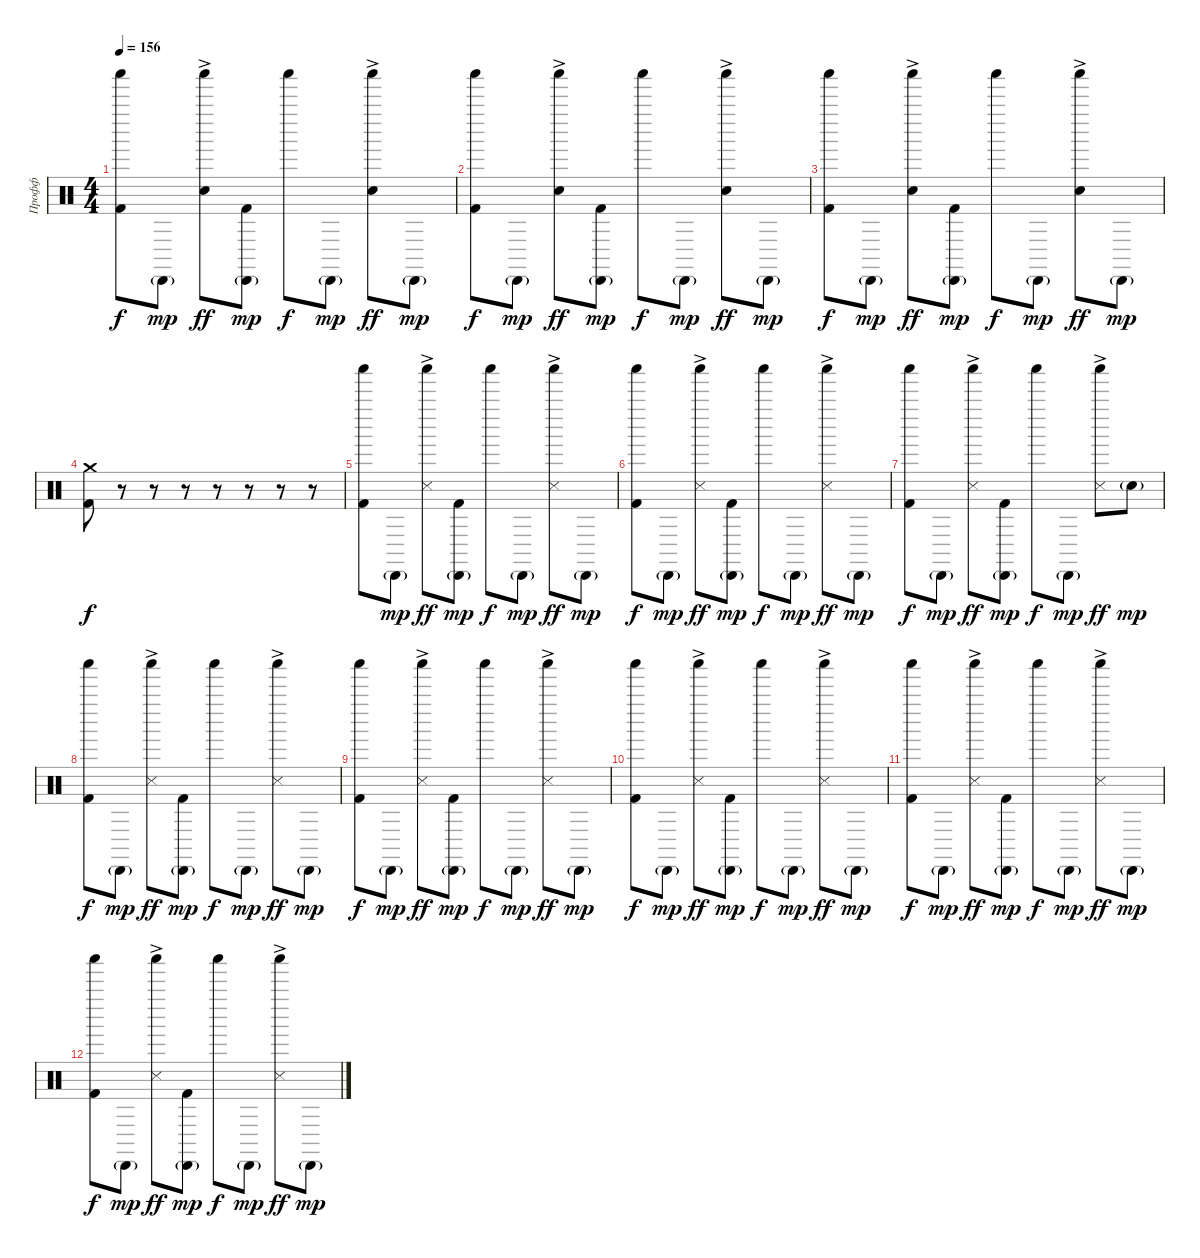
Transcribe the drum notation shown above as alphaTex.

\track ("Профф" "Профф") {instrument percussion}
\staff {score}
\articulation defaults
\ts (4 4)
\tempo 156
\clef neutral
\ks c
("Shaker (hit)" "Kick (hit) 2").8{dy f} "Cabasa (hit)"{g}.8{dy mp} ("Shaker (hit)"{ac} "Electric Snare (hit)").8{dy ff} ("Cabasa (hit)"{g} "Kick (hit) 2").8{dy mp} "Shaker (hit)".8{dy f} "Cabasa (hit)"{g}.8{dy mp} ("Shaker (hit)"{ac} "Electric Snare (hit)").8{dy ff} "Cabasa (hit)"{g}.8{dy mp} |
("Shaker (hit)" "Kick (hit) 2").8{dy f} "Cabasa (hit)"{g}.8{dy mp} ("Shaker (hit)"{ac} "Electric Snare (hit)").8{dy ff} ("Cabasa (hit)"{g} "Kick (hit) 2").8{dy mp} "Shaker (hit)".8{dy f} "Cabasa (hit)"{g}.8{dy mp} ("Shaker (hit)"{ac} "Electric Snare (hit)").8{dy ff} "Cabasa (hit)"{g}.8{dy mp} |
("Shaker (hit)" "Kick (hit) 2").8{dy f} "Cabasa (hit)"{g}.8{dy mp} ("Shaker (hit)"{ac} "Electric Snare (hit)").8{dy ff} ("Cabasa (hit)"{g} "Kick (hit) 2").8{dy mp} "Shaker (hit)".8{dy f} "Cabasa (hit)"{g}.8{dy mp} ("Shaker (hit)"{ac} "Electric Snare (hit)").8{dy ff} "Cabasa (hit)"{g}.8{dy mp} |
("Crash medium (hit)" "Kick (hit) 2").8{dy f} r.8 r.8 r.8 r.8 r.8 r.8 r.8 |
("Shaker (hit)" "Kick (hit) 2").8 "Cabasa (hit)"{g}.8{dy mp} ("Shaker (hit)"{ac} "Snare (side stick) 3").8{dy ff} ("Cabasa (hit)"{g} "Kick (hit) 2").8{dy mp} "Shaker (hit)".8{dy f} "Cabasa (hit)"{g}.8{dy mp} ("Shaker (hit)"{ac} "Snare (side stick) 3").8{dy ff} "Cabasa (hit)"{g}.8{dy mp} |
("Shaker (hit)" "Kick (hit) 2").8{dy f} "Cabasa (hit)"{g}.8{dy mp} ("Shaker (hit)"{ac} "Snare (side stick) 3").8{dy ff} ("Cabasa (hit)"{g} "Kick (hit) 2").8{dy mp} "Shaker (hit)".8{dy f} "Cabasa (hit)"{g}.8{dy mp} ("Shaker (hit)"{ac} "Snare (side stick) 3").8{dy ff} "Cabasa (hit)"{g}.8{dy mp} |
("Shaker (hit)" "Kick (hit) 2").8{dy f} "Cabasa (hit)"{g}.8{dy mp} ("Shaker (hit)"{ac} "Snare (side stick) 3").8{dy ff} ("Cabasa (hit)"{g} "Kick (hit) 2").8{dy mp} "Shaker (hit)".8{dy f} "Cabasa (hit)"{g}.8{dy mp} ("Shaker (hit)"{ac} "Snare (side stick) 3").8{dy ff} "Snare (hit)"{g}.8{dy mp} |
("Shaker (hit)" "Kick (hit) 2").8{dy f} "Cabasa (hit)"{g}.8{dy mp} ("Shaker (hit)"{ac} "Snare (side stick) 3").8{dy ff} ("Cabasa (hit)"{g} "Kick (hit) 2").8{dy mp} "Shaker (hit)".8{dy f} "Cabasa (hit)"{g}.8{dy mp} ("Shaker (hit)"{ac} "Snare (side stick) 3").8{dy ff} "Cabasa (hit)"{g}.8{dy mp} |
("Shaker (hit)" "Kick (hit) 2").8{dy f} "Cabasa (hit)"{g}.8{dy mp} ("Shaker (hit)"{ac} "Snare (side stick) 3").8{dy ff} ("Cabasa (hit)"{g} "Kick (hit) 2").8{dy mp} "Shaker (hit)".8{dy f} "Cabasa (hit)"{g}.8{dy mp} ("Shaker (hit)"{ac} "Snare (side stick) 3").8{dy ff} "Cabasa (hit)"{g}.8{dy mp} |
("Shaker (hit)" "Kick (hit) 2").8{dy f} "Cabasa (hit)"{g}.8{dy mp} ("Shaker (hit)"{ac} "Snare (side stick) 3").8{dy ff} ("Cabasa (hit)"{g} "Kick (hit) 2").8{dy mp} "Shaker (hit)".8{dy f} "Cabasa (hit)"{g}.8{dy mp} ("Shaker (hit)"{ac} "Snare (side stick) 3").8{dy ff} "Cabasa (hit)"{g}.8{dy mp} |
("Shaker (hit)" "Kick (hit) 2").8{dy f} "Cabasa (hit)"{g}.8{dy mp} ("Shaker (hit)"{ac} "Snare (side stick) 3").8{dy ff} ("Cabasa (hit)"{g} "Kick (hit) 2").8{dy mp} "Shaker (hit)".8{dy f} "Cabasa (hit)"{g}.8{dy mp} ("Shaker (hit)"{ac} "Snare (side stick) 3").8{dy ff} "Cabasa (hit)"{g}.8{dy mp} |
("Shaker (hit)" "Kick (hit) 2").8{dy f} "Cabasa (hit)"{g}.8{dy mp} ("Shaker (hit)"{ac} "Snare (side stick) 3").8{dy ff} ("Cabasa (hit)"{g} "Kick (hit) 2").8{dy mp} "Shaker (hit)".8{dy f} "Cabasa (hit)"{g}.8{dy mp} ("Shaker (hit)"{ac} "Snare (side stick) 3").8{dy ff} "Cabasa (hit)"{g}.8{dy mp}
